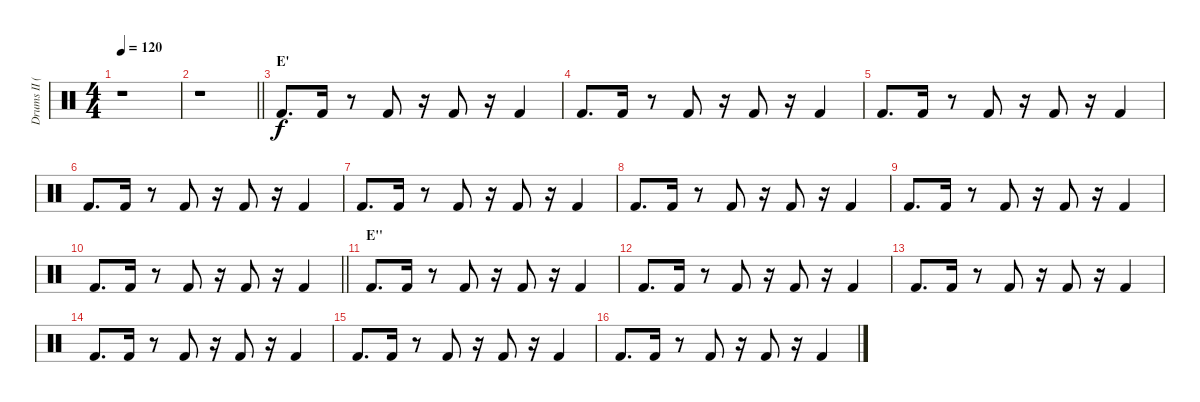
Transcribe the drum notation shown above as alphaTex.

\track ("Drums II (Ruka)" "Drums II (") {instrument percussion}
\staff {score}
\articulation defaults
\ts (4 4)
\tempo 120
\clef neutral
\ks c
r.1{dy f} |
\barLineRight lightlight
r.1 |
\section ("" "E'")
"Kick (hit) 2".8{d volume 16} "Kick (hit) 2".16 r.8 "Kick (hit) 2".8 r.16 "Kick (hit) 2".8 r.16 "Kick (hit) 2".4 |
"Kick (hit) 2".8{d} "Kick (hit) 2".16 r.8 "Kick (hit) 2".8 r.16 "Kick (hit) 2".8 r.16 "Kick (hit) 2".4 |
"Kick (hit) 2".8{d} "Kick (hit) 2".16 r.8 "Kick (hit) 2".8 r.16 "Kick (hit) 2".8 r.16 "Kick (hit) 2".4 |
"Kick (hit) 2".8{d} "Kick (hit) 2".16 r.8 "Kick (hit) 2".8 r.16 "Kick (hit) 2".8 r.16 "Kick (hit) 2".4 |
"Kick (hit) 2".8{d} "Kick (hit) 2".16 r.8 "Kick (hit) 2".8 r.16 "Kick (hit) 2".8 r.16 "Kick (hit) 2".4 |
"Kick (hit) 2".8{d} "Kick (hit) 2".16 r.8 "Kick (hit) 2".8 r.16 "Kick (hit) 2".8 r.16 "Kick (hit) 2".4 |
"Kick (hit) 2".8{d} "Kick (hit) 2".16 r.8 "Kick (hit) 2".8 r.16 "Kick (hit) 2".8 r.16 "Kick (hit) 2".4 |
\barLineRight lightlight "Kick (hit) 2".8{d} "Kick (hit) 2".16
r.8 "Kick (hit) 2".8 r.16 "Kick (hit) 2".8 r.16 "Kick (hit) 2".4 |
\section ("" "E''")
"Kick (hit) 2".8{d volume 16} "Kick (hit) 2".16 r.8 "Kick (hit) 2".8 r.16 "Kick (hit) 2".8 r.16 "Kick (hit) 2".4 |
"Kick (hit) 2".8{d} "Kick (hit) 2".16 r.8 "Kick (hit) 2".8 r.16 "Kick (hit) 2".8 r.16 "Kick (hit) 2".4 |
"Kick (hit) 2".8{d} "Kick (hit) 2".16 r.8 "Kick (hit) 2".8 r.16 "Kick (hit) 2".8 r.16 "Kick (hit) 2".4 |
"Kick (hit) 2".8{d} "Kick (hit) 2".16 r.8 "Kick (hit) 2".8 r.16 "Kick (hit) 2".8 r.16 "Kick (hit) 2".4 |
"Kick (hit) 2".8{d} "Kick (hit) 2".16 r.8 "Kick (hit) 2".8 r.16 "Kick (hit) 2".8 r.16 "Kick (hit) 2".4 |
"Kick (hit) 2".8{d} "Kick (hit) 2".16 r.8 "Kick (hit) 2".8 r.16 "Kick (hit) 2".8 r.16 "Kick (hit) 2".4
